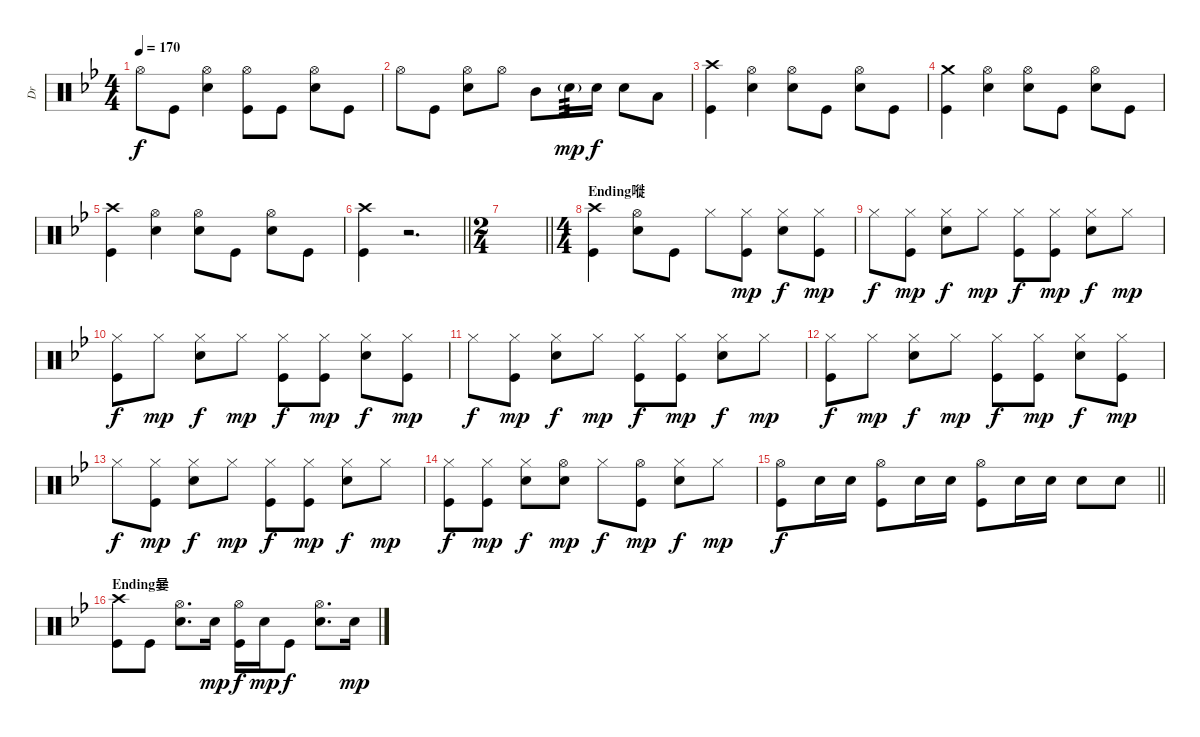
\track ("Dr" "Dr") {instrument percussion}
\staff {score}
\articulation defaults
\ts (4 4)
\tempo 170
\clef neutral
\ks bb "Hi-Hat (open)".8{dy f} "Kick (hit)".8
("Hi-Hat (open)" "Electric Snare (hit)").4 ("Hi-Hat (open)" "Kick (hit)").8 "Kick (hit)".8 ("Hi-Hat (open)" "Electric Snare (hit)").8 "Kick (hit)".8 |
"Hi-Hat (open)".8 "Kick (hit)".8 ("Hi-Hat (open)" "Electric Snare (hit)").8 "Hi-Hat (open)".8 "Mid Tom (hit)".8 "Electric Snare (hit)"{g}.16{tp 3 dy mp} "Electric Snare (hit)".16{dy f} "Electric Snare (hit)".8 "Low Floor Tom (hit)".8 |
("Crash high (hit)" "Kick (hit)").4 ("Hi-Hat (open)" "Electric Snare (hit)").4 ("Hi-Hat (open)" "Electric Snare (hit)").8 "Kick (hit)".8 ("Hi-Hat (open)" "Electric Snare (hit)").8 "Kick (hit)".8 |
("Crash medium (hit)" "Kick (hit)").4 ("Hi-Hat (open)" "Electric Snare (hit)").4 ("Hi-Hat (open)" "Electric Snare (hit)").8 "Kick (hit)".8 ("Hi-Hat (open)" "Electric Snare (hit)").8 "Kick (hit)".8 |
("Crash high (hit)" "Kick (hit)").4 ("Hi-Hat (open)" "Electric Snare (hit)").4 ("Hi-Hat (open)" "Electric Snare (hit)").8 "Kick (hit)".8 ("Hi-Hat (open)" "Electric Snare (hit)").8 "Kick (hit)".8 |
\barLineRight lightlight
("Crash high (hit)" "Kick (hit)").4 r.2{d} |
\ts (2 4)
\barLineRight lightlight
|
\ts (4 4)
\section ("" "Ending嘥")
("Crash high (hit)" "Kick (hit)").4 ("Hi-Hat (open)" "Electric Snare (hit)").8 "Kick (hit)".8 "Hi-Hat (closed)".8 ("Hi-Hat (closed)" "Kick (hit)").8{dy mp} ("Hi-Hat (closed)" "Electric Snare (hit)").8{dy f} ("Hi-Hat (closed)" "Kick (hit)").8{dy mp} |
"Hi-Hat (closed)".8{dy f} ("Hi-Hat (closed)" "Kick (hit)").8{dy mp} ("Hi-Hat (closed)" "Electric Snare (hit)").8{dy f} "Hi-Hat (closed)".8{dy mp} ("Hi-Hat (closed)" "Kick (hit)").8{dy f} ("Hi-Hat (closed)" "Kick (hit)").8{dy mp} ("Hi-Hat (closed)" "Electric Snare (hit)").8{dy f} "Hi-Hat (closed)".8{dy mp} |
("Hi-Hat (closed)" "Kick (hit)").8{dy f} "Hi-Hat (closed)".8{dy mp} ("Hi-Hat (closed)" "Electric Snare (hit)").8{dy f} "Hi-Hat (closed)".8{dy mp} ("Hi-Hat (closed)" "Kick (hit)").8{dy f} ("Hi-Hat (closed)" "Kick (hit)").8{dy mp} ("Hi-Hat (closed)" "Electric Snare (hit)").8{dy f} ("Hi-Hat (closed)" "Kick (hit)").8{dy mp} |
"Hi-Hat (closed)".8{dy f} ("Hi-Hat (closed)" "Kick (hit)").8{dy mp} ("Hi-Hat (closed)" "Electric Snare (hit)").8{dy f} "Hi-Hat (closed)".8{dy mp} ("Hi-Hat (closed)" "Kick (hit)").8{dy f} ("Hi-Hat (closed)" "Kick (hit)").8{dy mp} ("Hi-Hat (closed)" "Electric Snare (hit)").8{dy f} "Hi-Hat (closed)".8{dy mp} |
("Hi-Hat (closed)" "Kick (hit)").8{dy f} "Hi-Hat (closed)".8{dy mp} ("Hi-Hat (closed)" "Electric Snare (hit)").8{dy f} "Hi-Hat (closed)".8{dy mp} ("Hi-Hat (closed)" "Kick (hit)").8{dy f} ("Hi-Hat (closed)" "Kick (hit)").8{dy mp} ("Hi-Hat (closed)" "Electric Snare (hit)").8{dy f} ("Hi-Hat (closed)" "Kick (hit)").8{dy mp} |
"Hi-Hat (closed)".8{dy f} ("Hi-Hat (closed)" "Kick (hit)").8{dy mp} ("Hi-Hat (closed)" "Electric Snare (hit)").8{dy f} "Hi-Hat (closed)".8{dy mp} ("Hi-Hat (closed)" "Kick (hit)").8{dy f} ("Hi-Hat (closed)" "Kick (hit)").8{dy mp} ("Hi-Hat (closed)" "Electric Snare (hit)").8{dy f} "Hi-Hat (closed)".8{dy mp} |
("Hi-Hat (closed)" "Kick (hit)").8{dy f} ("Hi-Hat (closed)" "Kick (hit)").8{dy mp} ("Hi-Hat (closed)" "Electric Snare (hit)").8{dy f} ("Hi-Hat (open)" "Electric Snare (hit)").8{dy mp} "Hi-Hat (closed)".8{dy f} ("Hi-Hat (open)" "Kick (hit)").8{dy mp} ("Hi-Hat (closed)" "Electric Snare (hit)").8{dy f} "Hi-Hat (closed)".8{dy mp} |
\barLineRight lightlight
("Hi-Hat (open)" "Kick (hit)").8{dy f} "Electric Snare (hit)".16 "Electric Snare (hit)".16 ("Hi-Hat (open)" "Kick (hit)").8 "Electric Snare (hit)".16 "Electric Snare (hit)".16 ("Hi-Hat (open)" "Kick (hit)").8 "Electric Snare (hit)".16 "Electric Snare (hit)".16 "Electric Snare (hit)".8 "Electric Snare (hit)".8 |
\section ("" "Ending嘦")
("Crash high (hit)" "Kick (hit)").8 "Kick (hit)".8 ("Hi-Hat (open)" "Electric Snare (hit)").8{d} "Electric Snare (hit)".16{dy mp} ("Hi-Hat (open)" "Kick (hit)").16{dy f} "Electric Snare (hit)".16{dy mp} "Kick (hit)".8{dy f} ("Hi-Hat (open)" "Electric Snare (hit)").8{d} "Electric Snare (hit)".16{dy mp}
